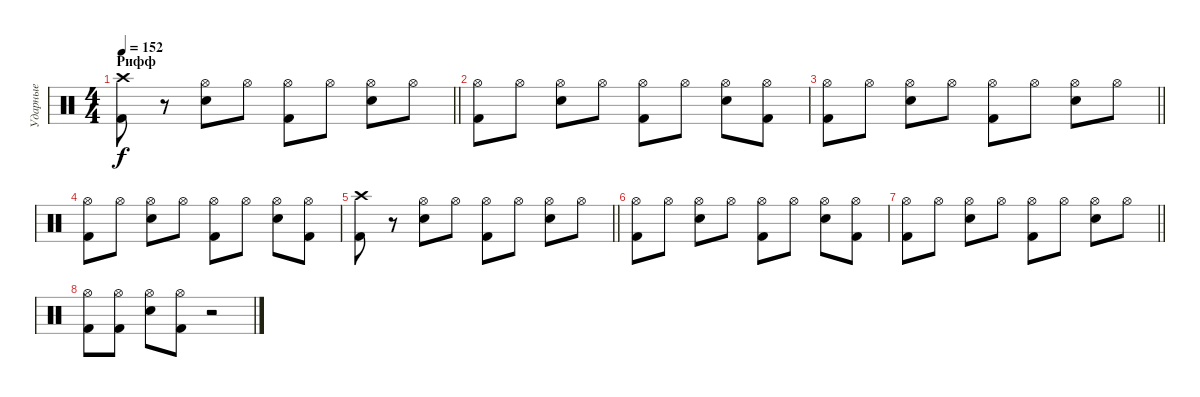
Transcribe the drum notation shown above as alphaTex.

\track ("Ударные" "Ударные") {instrument percussion}
\staff {score}
\articulation defaults
\ts (4 4)
\section ("" "Рифф")
\tempo 152
\clef neutral
\barLineRight lightlight
\ks c
("Crash high (hit)" "Kick (hit) 2").8{dy f} r.8 ("Hi-Hat (open)" "Snare (hit) 2").8 "Hi-Hat (open)".8 ("Hi-Hat (open)" "Kick (hit) 2").8 "Hi-Hat (open)".8 ("Hi-Hat (open)" "Snare (hit) 2").8 "Hi-Hat (open)".8 |
("Hi-Hat (open)" "Kick (hit) 2").8 "Hi-Hat (open)".8 ("Hi-Hat (open)" "Snare (hit) 2").8 "Hi-Hat (open)".8 ("Hi-Hat (open)" "Kick (hit) 2").8 "Hi-Hat (open)".8 ("Hi-Hat (open)" "Snare (hit) 2").8 ("Hi-Hat (open)" "Kick (hit) 2").8 |
\barLineRight lightlight
("Hi-Hat (open)" "Kick (hit) 2").8 "Hi-Hat (open)".8 ("Hi-Hat (open)" "Snare (hit) 2").8 "Hi-Hat (open)".8 ("Hi-Hat (open)" "Kick (hit) 2").8 "Hi-Hat (open)".8 ("Hi-Hat (open)" "Snare (hit) 2").8 "Hi-Hat (open)".8 |
("Hi-Hat (open)" "Kick (hit) 2").8 "Hi-Hat (open)".8 ("Hi-Hat (open)" "Snare (hit) 2").8 "Hi-Hat (open)".8 ("Hi-Hat (open)" "Kick (hit) 2").8 "Hi-Hat (open)".8 ("Hi-Hat (open)" "Snare (hit) 2").8 ("Hi-Hat (open)" "Kick (hit) 2").8 |
\barLineRight lightlight
("Crash high (hit)" "Kick (hit) 2").8 r.8 ("Hi-Hat (open)" "Snare (hit) 2").8 "Hi-Hat (open)".8 ("Hi-Hat (open)" "Kick (hit) 2").8 "Hi-Hat (open)".8 ("Hi-Hat (open)" "Snare (hit) 2").8 "Hi-Hat (open)".8 |
("Hi-Hat (open)" "Kick (hit) 2").8 "Hi-Hat (open)".8 ("Hi-Hat (open)" "Snare (hit) 2").8 "Hi-Hat (open)".8 ("Hi-Hat (open)" "Kick (hit) 2").8 "Hi-Hat (open)".8 ("Hi-Hat (open)" "Snare (hit) 2").8 ("Hi-Hat (open)" "Kick (hit) 2").8 |
\barLineRight lightlight
("Hi-Hat (open)" "Kick (hit) 2").8 "Hi-Hat (open)".8 ("Hi-Hat (open)" "Snare (hit) 2").8 "Hi-Hat (open)".8 ("Hi-Hat (open)" "Kick (hit) 2").8 "Hi-Hat (open)".8 ("Hi-Hat (open)" "Snare (hit) 2").8 "Hi-Hat (open)".8 |
("Hi-Hat (open)" "Kick (hit) 2").8 ("Hi-Hat (open)" "Kick (hit) 2").8 ("Hi-Hat (open)" "Snare (hit) 2").8 ("Hi-Hat (open)" "Kick (hit) 2").8 r.2
